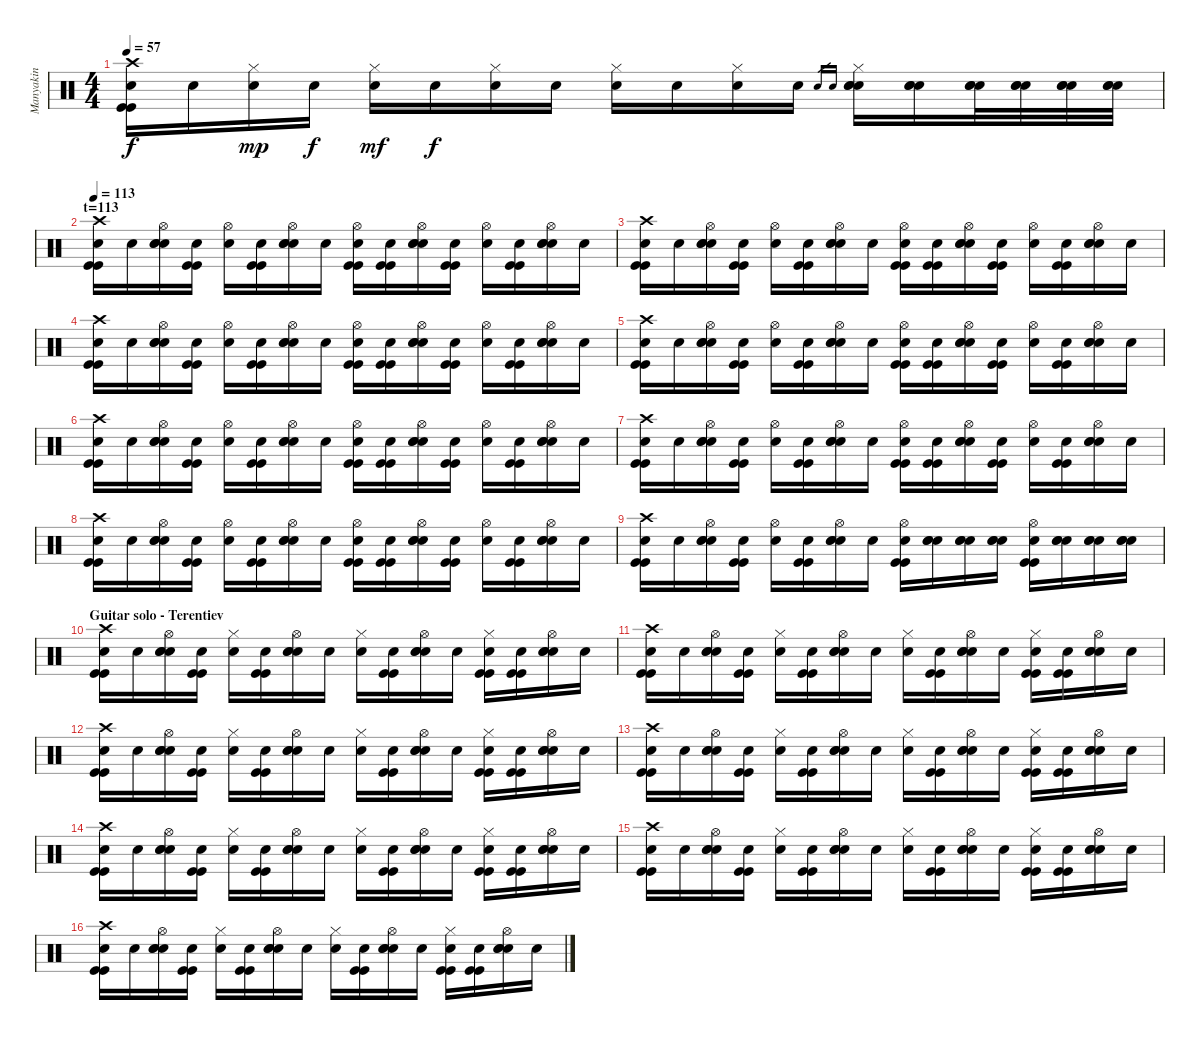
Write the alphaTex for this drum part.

\track ("Manyakin" "Manyakin") {instrument percussion}
\staff {score}
\articulation defaults
\ts (4 4)
\tempo 57
\clef neutral
\ks c
("Crash high (hit)" "Kick (hit)" "Kick (hit)" "Snare (hit)"{x}).16{dy f} "Snare (hit)"{x}.16 ("Hi-Hat (closed)" "Snare (hit)"{x}).16{dy mp} "Snare (hit)"{x}.16{dy f} ("Hi-Hat (closed)" "Snare (hit)"{x}).16{dy mf} "Snare (hit)"{x}.16{dy f} ("Hi-Hat (closed)" "Snare (hit)"{x}).16 "Snare (hit)"{x}.16 ("Hi-Hat (closed)" "Snare (hit)"{x}).16 "Snare (hit)"{x}.16 ("Hi-Hat (closed)" "Snare (hit)"{x}).16 "Snare (hit)"{x}.16 "Electric Snare (hit)".16{gr} "Electric Snare (hit)".16{gr} ("Hi-Hat (closed)" "Electric Snare (hit)" "Electric Snare (hit)" "Snare (hit)"{x}).16 ("Electric Snare (hit)" "Electric Snare (hit)" "Snare (hit)"{x}).16 ("Electric Snare (hit)" "Electric Snare (hit)" "Snare (hit)"{x}).32 ("Electric Snare (hit)" "Electric Snare (hit)" "Snare (hit)"{x}).32 ("Electric Snare (hit)" "Electric Snare (hit)" "Snare (hit)"{x}).32 ("Electric Snare (hit)" "Electric Snare (hit)" "Snare (hit)"{x}).32 |
\section ("" "t=113")
\tempo 113
("Crash high (hit)" "Kick (hit)" "Kick (hit)" "Snare (hit)"{x}).16 "Snare (hit)"{x}.16 ("Hi-Hat (open)" "Electric Snare (hit)" "Electric Snare (hit)" "Snare (hit)"{x}).16 ("Kick (hit)" "Kick (hit)" "Snare (hit)"{x}).16 ("Hi-Hat (open)" "Snare (hit)"{x}).16 ("Kick (hit)" "Kick (hit)" "Snare (hit)"{x}).16 ("Hi-Hat (open)" "Electric Snare (hit)" "Electric Snare (hit)" "Snare (hit)"{x}).16 "Snare (hit)"{x}.16 ("Hi-Hat (open)" "Kick (hit)" "Kick (hit)" "Snare (hit)"{x}).16 ("Kick (hit)" "Kick (hit)" "Snare (hit)"{x}).16 ("Hi-Hat (open)" "Electric Snare (hit)" "Electric Snare (hit)" "Snare (hit)"{x}).16 ("Kick (hit)" "Kick (hit)" "Snare (hit)"{x}).16 ("Hi-Hat (open)" "Snare (hit)"{x}).16 ("Kick (hit)" "Kick (hit)" "Snare (hit)"{x}).16 ("Hi-Hat (open)" "Electric Snare (hit)" "Electric Snare (hit)" "Snare (hit)"{x}).16 "Snare (hit)"{x}.16 |
("Crash high (hit)" "Kick (hit)" "Kick (hit)" "Snare (hit)"{x}).16 "Snare (hit)"{x}.16 ("Hi-Hat (open)" "Electric Snare (hit)" "Electric Snare (hit)" "Snare (hit)"{x}).16 ("Kick (hit)" "Kick (hit)" "Snare (hit)"{x}).16 ("Hi-Hat (open)" "Snare (hit)"{x}).16 ("Kick (hit)" "Kick (hit)" "Snare (hit)"{x}).16 ("Hi-Hat (open)" "Electric Snare (hit)" "Electric Snare (hit)" "Snare (hit)"{x}).16 "Snare (hit)"{x}.16 ("Hi-Hat (open)" "Kick (hit)" "Kick (hit)" "Snare (hit)"{x}).16 ("Kick (hit)" "Kick (hit)" "Snare (hit)"{x}).16 ("Hi-Hat (open)" "Electric Snare (hit)" "Electric Snare (hit)" "Snare (hit)"{x}).16 ("Kick (hit)" "Kick (hit)" "Snare (hit)"{x}).16 ("Hi-Hat (open)" "Snare (hit)"{x}).16 ("Kick (hit)" "Kick (hit)" "Snare (hit)"{x}).16 ("Hi-Hat (open)" "Electric Snare (hit)" "Electric Snare (hit)" "Snare (hit)"{x}).16 "Snare (hit)"{x}.16 |
("Crash high (hit)" "Kick (hit)" "Kick (hit)" "Snare (hit)"{x}).16 "Snare (hit)"{x}.16 ("Hi-Hat (open)" "Electric Snare (hit)" "Electric Snare (hit)" "Snare (hit)"{x}).16 ("Kick (hit)" "Kick (hit)" "Snare (hit)"{x}).16 ("Hi-Hat (open)" "Snare (hit)"{x}).16 ("Kick (hit)" "Kick (hit)" "Snare (hit)"{x}).16 ("Hi-Hat (open)" "Electric Snare (hit)" "Electric Snare (hit)" "Snare (hit)"{x}).16 "Snare (hit)"{x}.16 ("Hi-Hat (open)" "Kick (hit)" "Kick (hit)" "Snare (hit)"{x}).16 ("Kick (hit)" "Kick (hit)" "Snare (hit)"{x}).16 ("Hi-Hat (open)" "Electric Snare (hit)" "Electric Snare (hit)" "Snare (hit)"{x}).16 ("Kick (hit)" "Kick (hit)" "Snare (hit)"{x}).16 ("Hi-Hat (open)" "Snare (hit)"{x}).16 ("Kick (hit)" "Kick (hit)" "Snare (hit)"{x}).16 ("Hi-Hat (open)" "Electric Snare (hit)" "Electric Snare (hit)" "Snare (hit)"{x}).16 "Snare (hit)"{x}.16 |
("Crash high (hit)" "Kick (hit)" "Kick (hit)" "Snare (hit)"{x}).16 "Snare (hit)"{x}.16 ("Hi-Hat (open)" "Electric Snare (hit)" "Electric Snare (hit)" "Snare (hit)"{x}).16 ("Kick (hit)" "Kick (hit)" "Snare (hit)"{x}).16 ("Hi-Hat (open)" "Snare (hit)"{x}).16 ("Kick (hit)" "Kick (hit)" "Snare (hit)"{x}).16 ("Hi-Hat (open)" "Electric Snare (hit)" "Electric Snare (hit)" "Snare (hit)"{x}).16 "Snare (hit)"{x}.16 ("Hi-Hat (open)" "Kick (hit)" "Kick (hit)" "Snare (hit)"{x}).16 ("Kick (hit)" "Kick (hit)" "Snare (hit)"{x}).16 ("Hi-Hat (open)" "Electric Snare (hit)" "Electric Snare (hit)" "Snare (hit)"{x}).16 ("Kick (hit)" "Kick (hit)" "Snare (hit)"{x}).16 ("Hi-Hat (open)" "Snare (hit)"{x}).16 ("Kick (hit)" "Kick (hit)" "Snare (hit)"{x}).16 ("Hi-Hat (open)" "Electric Snare (hit)" "Electric Snare (hit)" "Snare (hit)"{x}).16 "Snare (hit)"{x}.16 |
("Crash high (hit)" "Kick (hit)" "Kick (hit)" "Snare (hit)"{x}).16 "Snare (hit)"{x}.16 ("Hi-Hat (open)" "Electric Snare (hit)" "Electric Snare (hit)" "Snare (hit)"{x}).16 ("Kick (hit)" "Kick (hit)" "Snare (hit)"{x}).16 ("Hi-Hat (open)" "Snare (hit)"{x}).16 ("Kick (hit)" "Kick (hit)" "Snare (hit)"{x}).16 ("Hi-Hat (open)" "Electric Snare (hit)" "Electric Snare (hit)" "Snare (hit)"{x}).16 "Snare (hit)"{x}.16 ("Hi-Hat (open)" "Kick (hit)" "Kick (hit)" "Snare (hit)"{x}).16 ("Kick (hit)" "Kick (hit)" "Snare (hit)"{x}).16 ("Hi-Hat (open)" "Electric Snare (hit)" "Electric Snare (hit)" "Snare (hit)"{x}).16 ("Kick (hit)" "Kick (hit)" "Snare (hit)"{x}).16 ("Hi-Hat (open)" "Snare (hit)"{x}).16 ("Kick (hit)" "Kick (hit)" "Snare (hit)"{x}).16 ("Hi-Hat (open)" "Electric Snare (hit)" "Electric Snare (hit)" "Snare (hit)"{x}).16 "Snare (hit)"{x}.16 |
("Crash high (hit)" "Kick (hit)" "Kick (hit)" "Snare (hit)"{x}).16 "Snare (hit)"{x}.16 ("Hi-Hat (open)" "Electric Snare (hit)" "Electric Snare (hit)" "Snare (hit)"{x}).16 ("Kick (hit)" "Kick (hit)" "Snare (hit)"{x}).16 ("Hi-Hat (open)" "Snare (hit)"{x}).16 ("Kick (hit)" "Kick (hit)" "Snare (hit)"{x}).16 ("Hi-Hat (open)" "Electric Snare (hit)" "Electric Snare (hit)" "Snare (hit)"{x}).16 "Snare (hit)"{x}.16 ("Hi-Hat (open)" "Kick (hit)" "Kick (hit)" "Snare (hit)"{x}).16 ("Kick (hit)" "Kick (hit)" "Snare (hit)"{x}).16 ("Hi-Hat (open)" "Electric Snare (hit)" "Electric Snare (hit)" "Snare (hit)"{x}).16 ("Kick (hit)" "Kick (hit)" "Snare (hit)"{x}).16 ("Hi-Hat (open)" "Snare (hit)"{x}).16 ("Kick (hit)" "Kick (hit)" "Snare (hit)"{x}).16 ("Hi-Hat (open)" "Electric Snare (hit)" "Electric Snare (hit)" "Snare (hit)"{x}).16 "Snare (hit)"{x}.16 |
("Crash high (hit)" "Kick (hit)" "Kick (hit)" "Snare (hit)"{x}).16 "Snare (hit)"{x}.16 ("Hi-Hat (open)" "Electric Snare (hit)" "Electric Snare (hit)" "Snare (hit)"{x}).16 ("Kick (hit)" "Kick (hit)" "Snare (hit)"{x}).16 ("Hi-Hat (open)" "Snare (hit)"{x}).16 ("Kick (hit)" "Kick (hit)" "Snare (hit)"{x}).16 ("Hi-Hat (open)" "Electric Snare (hit)" "Electric Snare (hit)" "Snare (hit)"{x}).16 "Snare (hit)"{x}.16 ("Hi-Hat (open)" "Kick (hit)" "Kick (hit)" "Snare (hit)"{x}).16 ("Kick (hit)" "Kick (hit)" "Snare (hit)"{x}).16 ("Hi-Hat (open)" "Electric Snare (hit)" "Electric Snare (hit)" "Snare (hit)"{x}).16 ("Kick (hit)" "Kick (hit)" "Snare (hit)"{x}).16 ("Hi-Hat (open)" "Snare (hit)"{x}).16 ("Kick (hit)" "Kick (hit)" "Snare (hit)"{x}).16 ("Hi-Hat (open)" "Electric Snare (hit)" "Electric Snare (hit)" "Snare (hit)"{x}).16 "Snare (hit)"{x}.16 |
("Crash high (hit)" "Kick (hit)" "Kick (hit)" "Snare (hit)"{x}).16 "Snare (hit)"{x}.16 ("Hi-Hat (open)" "Electric Snare (hit)" "Electric Snare (hit)" "Snare (hit)"{x}).16 ("Kick (hit)" "Kick (hit)" "Snare (hit)"{x}).16 ("Hi-Hat (open)" "Snare (hit)"{x}).16 ("Kick (hit)" "Kick (hit)" "Snare (hit)"{x}).16 ("Hi-Hat (open)" "Electric Snare (hit)" "Electric Snare (hit)" "Snare (hit)"{x}).16 "Snare (hit)"{x}.16 ("Hi-Hat (open)" "Kick (hit)" "Kick (hit)" "Snare (hit)"{x}).16 ("Electric Snare (hit)" "Electric Snare (hit)" "Snare (hit)"{x}).16 ("Electric Snare (hit)" "Electric Snare (hit)" "Snare (hit)"{x}).16 ("Electric Snare (hit)" "Electric Snare (hit)" "Snare (hit)"{x}).16 ("Hi-Hat (open)" "Kick (hit)" "Kick (hit)" "Snare (hit)"{x}).16 ("Electric Snare (hit)" "Electric Snare (hit)" "Snare (hit)"{x}).16 ("Electric Snare (hit)" "Electric Snare (hit)" "Snare (hit)"{x}).16 ("Electric Snare (hit)" "Electric Snare (hit)" "Snare (hit)"{x}).16 |
\section ("" "Guitar solo - Terentiev")
("Crash high (hit)" "Kick (hit)" "Kick (hit)" "Snare (hit)"{x}).16 "Snare (hit)"{x}.16 ("Hi-Hat (open)" "Electric Snare (hit)" "Electric Snare (hit)" "Snare (hit)"{x}).16 ("Kick (hit)" "Kick (hit)" "Snare (hit)"{x}).16 ("Hi-Hat (closed)" "Snare (hit)"{x}).16 ("Kick (hit)" "Kick (hit)" "Snare (hit)"{x}).16 ("Hi-Hat (open)" "Electric Snare (hit)" "Electric Snare (hit)" "Snare (hit)"{x}).16 "Snare (hit)"{x}.16 ("Hi-Hat (closed)" "Snare (hit)"{x}).16 ("Kick (hit)" "Kick (hit)" "Snare (hit)"{x}).16 ("Hi-Hat (open)" "Electric Snare (hit)" "Electric Snare (hit)" "Snare (hit)"{x}).16 "Snare (hit)"{x}.16 ("Hi-Hat (closed)" "Kick (hit)" "Kick (hit)" "Snare (hit)"{x}).16 ("Kick (hit)" "Kick (hit)" "Snare (hit)"{x}).16 ("Hi-Hat (open)" "Electric Snare (hit)" "Electric Snare (hit)" "Snare (hit)"{x}).16 "Snare (hit)"{x}.16 |
("Crash high (hit)" "Kick (hit)" "Kick (hit)" "Snare (hit)"{x}).16 "Snare (hit)"{x}.16 ("Hi-Hat (open)" "Electric Snare (hit)" "Electric Snare (hit)" "Snare (hit)"{x}).16 ("Kick (hit)" "Kick (hit)" "Snare (hit)"{x}).16 ("Hi-Hat (closed)" "Snare (hit)"{x}).16 ("Kick (hit)" "Kick (hit)" "Snare (hit)"{x}).16 ("Hi-Hat (open)" "Electric Snare (hit)" "Electric Snare (hit)" "Snare (hit)"{x}).16 "Snare (hit)"{x}.16 ("Hi-Hat (closed)" "Snare (hit)"{x}).16 ("Kick (hit)" "Kick (hit)" "Snare (hit)"{x}).16 ("Hi-Hat (open)" "Electric Snare (hit)" "Electric Snare (hit)" "Snare (hit)"{x}).16 "Snare (hit)"{x}.16 ("Hi-Hat (closed)" "Kick (hit)" "Kick (hit)" "Snare (hit)"{x}).16 ("Kick (hit)" "Kick (hit)" "Snare (hit)"{x}).16 ("Hi-Hat (open)" "Electric Snare (hit)" "Electric Snare (hit)" "Snare (hit)"{x}).16 "Snare (hit)"{x}.16 |
("Crash high (hit)" "Kick (hit)" "Kick (hit)" "Snare (hit)"{x}).16 "Snare (hit)"{x}.16 ("Hi-Hat (open)" "Electric Snare (hit)" "Electric Snare (hit)" "Snare (hit)"{x}).16 ("Kick (hit)" "Kick (hit)" "Snare (hit)"{x}).16 ("Hi-Hat (closed)" "Snare (hit)"{x}).16 ("Kick (hit)" "Kick (hit)" "Snare (hit)"{x}).16 ("Hi-Hat (open)" "Electric Snare (hit)" "Electric Snare (hit)" "Snare (hit)"{x}).16 "Snare (hit)"{x}.16 ("Hi-Hat (closed)" "Snare (hit)"{x}).16 ("Kick (hit)" "Kick (hit)" "Snare (hit)"{x}).16 ("Hi-Hat (open)" "Electric Snare (hit)" "Electric Snare (hit)" "Snare (hit)"{x}).16 "Snare (hit)"{x}.16 ("Hi-Hat (closed)" "Kick (hit)" "Kick (hit)" "Snare (hit)"{x}).16 ("Kick (hit)" "Kick (hit)" "Snare (hit)"{x}).16 ("Hi-Hat (open)" "Electric Snare (hit)" "Electric Snare (hit)" "Snare (hit)"{x}).16 "Snare (hit)"{x}.16 |
("Crash high (hit)" "Kick (hit)" "Kick (hit)" "Snare (hit)"{x}).16 "Snare (hit)"{x}.16 ("Hi-Hat (open)" "Electric Snare (hit)" "Electric Snare (hit)" "Snare (hit)"{x}).16 ("Kick (hit)" "Kick (hit)" "Snare (hit)"{x}).16 ("Hi-Hat (closed)" "Snare (hit)"{x}).16 ("Kick (hit)" "Kick (hit)" "Snare (hit)"{x}).16 ("Hi-Hat (open)" "Electric Snare (hit)" "Electric Snare (hit)" "Snare (hit)"{x}).16 "Snare (hit)"{x}.16 ("Hi-Hat (closed)" "Snare (hit)"{x}).16 ("Kick (hit)" "Kick (hit)" "Snare (hit)"{x}).16 ("Hi-Hat (open)" "Electric Snare (hit)" "Electric Snare (hit)" "Snare (hit)"{x}).16 "Snare (hit)"{x}.16 ("Hi-Hat (closed)" "Kick (hit)" "Kick (hit)" "Snare (hit)"{x}).16 ("Kick (hit)" "Kick (hit)" "Snare (hit)"{x}).16 ("Hi-Hat (open)" "Electric Snare (hit)" "Electric Snare (hit)" "Snare (hit)"{x}).16 "Snare (hit)"{x}.16 |
("Crash high (hit)" "Kick (hit)" "Kick (hit)" "Snare (hit)"{x}).16 "Snare (hit)"{x}.16 ("Hi-Hat (open)" "Electric Snare (hit)" "Electric Snare (hit)" "Snare (hit)"{x}).16 ("Kick (hit)" "Kick (hit)" "Snare (hit)"{x}).16 ("Hi-Hat (closed)" "Snare (hit)"{x}).16 ("Kick (hit)" "Kick (hit)" "Snare (hit)"{x}).16 ("Hi-Hat (open)" "Electric Snare (hit)" "Electric Snare (hit)" "Snare (hit)"{x}).16 "Snare (hit)"{x}.16 ("Hi-Hat (closed)" "Snare (hit)"{x}).16 ("Kick (hit)" "Kick (hit)" "Snare (hit)"{x}).16 ("Hi-Hat (open)" "Electric Snare (hit)" "Electric Snare (hit)" "Snare (hit)"{x}).16 "Snare (hit)"{x}.16 ("Hi-Hat (closed)" "Kick (hit)" "Kick (hit)" "Snare (hit)"{x}).16 ("Kick (hit)" "Kick (hit)" "Snare (hit)"{x}).16 ("Hi-Hat (open)" "Electric Snare (hit)" "Electric Snare (hit)" "Snare (hit)"{x}).16 "Snare (hit)"{x}.16 |
("Crash high (hit)" "Kick (hit)" "Kick (hit)" "Snare (hit)"{x}).16 "Snare (hit)"{x}.16 ("Hi-Hat (open)" "Electric Snare (hit)" "Electric Snare (hit)" "Snare (hit)"{x}).16 ("Kick (hit)" "Kick (hit)" "Snare (hit)"{x}).16 ("Hi-Hat (closed)" "Snare (hit)"{x}).16 ("Kick (hit)" "Kick (hit)" "Snare (hit)"{x}).16 ("Hi-Hat (open)" "Electric Snare (hit)" "Electric Snare (hit)" "Snare (hit)"{x}).16 "Snare (hit)"{x}.16 ("Hi-Hat (closed)" "Snare (hit)"{x}).16 ("Kick (hit)" "Kick (hit)" "Snare (hit)"{x}).16 ("Hi-Hat (open)" "Electric Snare (hit)" "Electric Snare (hit)" "Snare (hit)"{x}).16 "Snare (hit)"{x}.16 ("Hi-Hat (closed)" "Kick (hit)" "Kick (hit)" "Snare (hit)"{x}).16 ("Kick (hit)" "Kick (hit)" "Snare (hit)"{x}).16 ("Hi-Hat (open)" "Electric Snare (hit)" "Electric Snare (hit)" "Snare (hit)"{x}).16 "Snare (hit)"{x}.16 |
("Crash high (hit)" "Kick (hit)" "Kick (hit)" "Snare (hit)"{x}).16 "Snare (hit)"{x}.16 ("Hi-Hat (open)" "Electric Snare (hit)" "Electric Snare (hit)" "Snare (hit)"{x}).16 ("Kick (hit)" "Kick (hit)" "Snare (hit)"{x}).16 ("Hi-Hat (closed)" "Snare (hit)"{x}).16 ("Kick (hit)" "Kick (hit)" "Snare (hit)"{x}).16 ("Hi-Hat (open)" "Electric Snare (hit)" "Electric Snare (hit)" "Snare (hit)"{x}).16 "Snare (hit)"{x}.16 ("Hi-Hat (closed)" "Snare (hit)"{x}).16 ("Kick (hit)" "Kick (hit)" "Snare (hit)"{x}).16 ("Hi-Hat (open)" "Electric Snare (hit)" "Electric Snare (hit)" "Snare (hit)"{x}).16 "Snare (hit)"{x}.16 ("Hi-Hat (closed)" "Kick (hit)" "Kick (hit)" "Snare (hit)"{x}).16 ("Kick (hit)" "Kick (hit)" "Snare (hit)"{x}).16 ("Hi-Hat (open)" "Electric Snare (hit)" "Electric Snare (hit)" "Snare (hit)"{x}).16 "Snare (hit)"{x}.16
